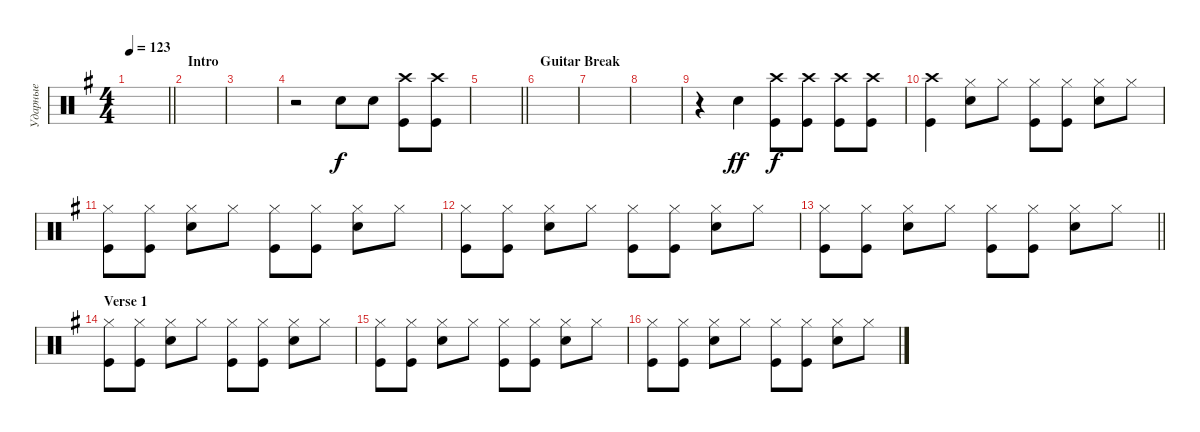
\track ("Ударные" "Ударные") {instrument percussion}
\staff {score}
\articulation defaults
\ts (4 4)
\tempo 123
\clef neutral
\barLineRight lightlight
\ks eminor
|
\section ("" "Intro")
|
|
r.2 "Snare (hit) 2".8{bd 120} "Snare (hit) 2".8{bd 60} ("Kick (hit)" "Crash high (hit)").8{dy f} ("Kick (hit)" "Crash high (hit)").8 |
\barLineRight lightlight
|
\section ("" "Guitar Break")
|
|
|
r.4 "Snare (hit) 2".4{dy ff} ("Kick (hit)" "Crash high (hit)").8{dy f} ("Kick (hit)" "Crash high (hit)").8 ("Kick (hit)" "Crash high (hit)").8 ("Kick (hit)" "Crash high (hit)").8 |
("Kick (hit)" "Crash high (hit)").4 ("Snare (hit) 2" "Hi-Hat (closed)").8 "Hi-Hat (closed)".8 ("Hi-Hat (closed)" "Kick (hit)").8 ("Hi-Hat (closed)" "Kick (hit)").8 ("Hi-Hat (closed)" "Snare (hit) 2").8 "Hi-Hat (closed)".8 |
("Hi-Hat (closed)" "Kick (hit)").8 ("Hi-Hat (closed)" "Kick (hit)").8 ("Snare (hit) 2" "Hi-Hat (closed)").8 "Hi-Hat (closed)".8 ("Hi-Hat (closed)" "Kick (hit)").8 ("Hi-Hat (closed)" "Kick (hit)").8 ("Hi-Hat (closed)" "Snare (hit) 2").8 "Hi-Hat (closed)".8 |
("Hi-Hat (closed)" "Kick (hit)").8 ("Hi-Hat (closed)" "Kick (hit)").8 ("Snare (hit) 2" "Hi-Hat (closed)").8 "Hi-Hat (closed)".8 ("Hi-Hat (closed)" "Kick (hit)").8 ("Hi-Hat (closed)" "Kick (hit)").8 ("Hi-Hat (closed)" "Snare (hit) 2").8 "Hi-Hat (closed)".8 |
\barLineRight lightlight
("Hi-Hat (closed)" "Kick (hit)").8 ("Hi-Hat (closed)" "Kick (hit)").8 ("Snare (hit) 2" "Hi-Hat (closed)").8 "Hi-Hat (closed)".8 ("Hi-Hat (closed)" "Kick (hit)").8 ("Hi-Hat (closed)" "Kick (hit)").8 ("Hi-Hat (closed)" "Snare (hit) 2").8 "Hi-Hat (closed)".8 |
\section ("" "Verse 1")
("Hi-Hat (closed)" "Kick (hit)").8 ("Hi-Hat (closed)" "Kick (hit)").8 ("Snare (hit) 2" "Hi-Hat (closed)").8 "Hi-Hat (closed)".8 ("Hi-Hat (closed)" "Kick (hit)").8 ("Hi-Hat (closed)" "Kick (hit)").8 ("Hi-Hat (closed)" "Snare (hit) 2").8 "Hi-Hat (closed)".8 |
("Hi-Hat (closed)" "Kick (hit)").8 ("Hi-Hat (closed)" "Kick (hit)").8 ("Snare (hit) 2" "Hi-Hat (closed)").8 "Hi-Hat (closed)".8 ("Hi-Hat (closed)" "Kick (hit)").8 ("Hi-Hat (closed)" "Kick (hit)").8 ("Hi-Hat (closed)" "Snare (hit) 2").8 "Hi-Hat (closed)".8 |
("Hi-Hat (closed)" "Kick (hit)").8 ("Hi-Hat (closed)" "Kick (hit)").8 ("Snare (hit) 2" "Hi-Hat (closed)").8 "Hi-Hat (closed)".8 ("Hi-Hat (closed)" "Kick (hit)").8 ("Hi-Hat (closed)" "Kick (hit)").8 ("Hi-Hat (closed)" "Snare (hit) 2").8 "Hi-Hat (closed)".8
